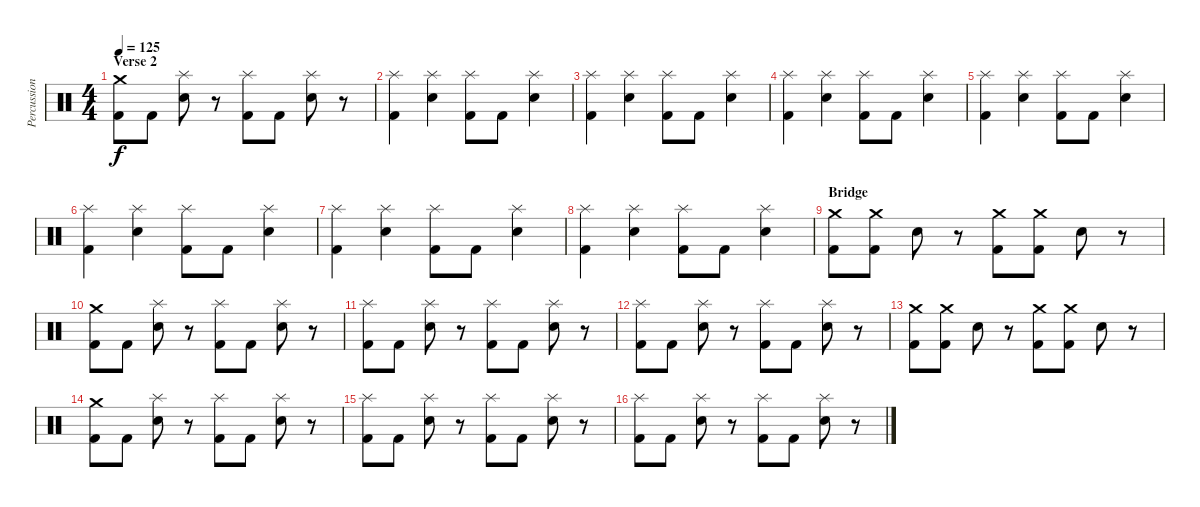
\track ("Percussion" "Percussion") {instrument percussion}
\staff {score}
\articulation defaults
\ts (4 4)
\section ("" "Verse 2")
\tempo 125
\clef neutral
\ks c
("Crash medium (hit)" "Kick (hit) 2").8{dy f} "Kick (hit) 2".8 ("Splash (hit)" "Snare (hit) 2").8 r.8 ("Splash (hit)" "Kick (hit) 2").8 "Kick (hit) 2".8 ("Splash (hit)" "Snare (hit) 2").8 r.8 |
("Splash (hit)" "Kick (hit) 2").4 ("Splash (hit)" "Snare (hit) 2").4 ("Splash (hit)" "Kick (hit) 2").8 "Kick (hit) 2".8 ("Splash (hit)" "Snare (hit) 2").4 |
("Splash (hit)" "Kick (hit) 2").4 ("Splash (hit)" "Snare (hit) 2").4 ("Splash (hit)" "Kick (hit) 2").8 "Kick (hit) 2".8 ("Splash (hit)" "Snare (hit) 2").4 |
("Splash (hit)" "Kick (hit) 2").4 ("Splash (hit)" "Snare (hit) 2").4 ("Splash (hit)" "Kick (hit) 2").8 "Kick (hit) 2".8 ("Splash (hit)" "Snare (hit) 2").4 |
("Splash (hit)" "Kick (hit) 2").4 ("Splash (hit)" "Snare (hit) 2").4 ("Splash (hit)" "Kick (hit) 2").8 "Kick (hit) 2".8 ("Splash (hit)" "Snare (hit) 2").4 |
("Splash (hit)" "Kick (hit) 2").4 ("Splash (hit)" "Snare (hit) 2").4 ("Splash (hit)" "Kick (hit) 2").8 "Kick (hit) 2".8 ("Splash (hit)" "Snare (hit) 2").4 |
("Splash (hit)" "Kick (hit) 2").4 ("Splash (hit)" "Snare (hit) 2").4 ("Splash (hit)" "Kick (hit) 2").8 "Kick (hit) 2".8 ("Splash (hit)" "Snare (hit) 2").4 |
("Splash (hit)" "Kick (hit) 2").4 ("Splash (hit)" "Snare (hit) 2").4 ("Splash (hit)" "Kick (hit) 2").8 "Kick (hit) 2".8 ("Splash (hit)" "Snare (hit) 2").4 |
\section ("" "Bridge")
("Crash medium (hit)" "Kick (hit) 2").8 ("Crash medium (hit)" "Kick (hit) 2").8 "Snare (hit) 2".8 r.8 ("Crash medium (hit)" "Kick (hit) 2").8 ("Crash medium (hit)" "Kick (hit) 2").8 "Snare (hit) 2".8 r.8 |
("Crash medium (hit)" "Kick (hit) 2").8 "Kick (hit) 2".8 ("Splash (hit)" "Snare (hit) 2").8 r.8 ("Splash (hit)" "Kick (hit) 2").8 "Kick (hit) 2".8 ("Splash (hit)" "Snare (hit) 2").8 r.8 |
("Splash (hit)" "Kick (hit) 2").8 "Kick (hit) 2".8 ("Splash (hit)" "Snare (hit) 2").8 r.8 ("Splash (hit)" "Kick (hit) 2").8 "Kick (hit) 2".8 ("Splash (hit)" "Snare (hit) 2").8 r.8 |
("Splash (hit)" "Kick (hit) 2").8 "Kick (hit) 2".8 ("Splash (hit)" "Snare (hit) 2").8 r.8 ("Splash (hit)" "Kick (hit) 2").8 "Kick (hit) 2".8 ("Splash (hit)" "Snare (hit) 2").8 r.8 |
("Crash medium (hit)" "Kick (hit) 2").8 ("Crash medium (hit)" "Kick (hit) 2").8 "Snare (hit) 2".8 r.8 ("Crash medium (hit)" "Kick (hit) 2").8 ("Crash medium (hit)" "Kick (hit) 2").8 "Snare (hit) 2".8 r.8 |
("Crash medium (hit)" "Kick (hit) 2").8 "Kick (hit) 2".8 ("Splash (hit)" "Snare (hit) 2").8 r.8 ("Splash (hit)" "Kick (hit) 2").8 "Kick (hit) 2".8 ("Splash (hit)" "Snare (hit) 2").8 r.8 |
("Splash (hit)" "Kick (hit) 2").8 "Kick (hit) 2".8 ("Splash (hit)" "Snare (hit) 2").8 r.8 ("Splash (hit)" "Kick (hit) 2").8 "Kick (hit) 2".8 ("Splash (hit)" "Snare (hit) 2").8 r.8 |
("Splash (hit)" "Kick (hit) 2").8 "Kick (hit) 2".8 ("Splash (hit)" "Snare (hit) 2").8 r.8 ("Splash (hit)" "Kick (hit) 2").8 "Kick (hit) 2".8 ("Splash (hit)" "Snare (hit) 2").8 r.8
